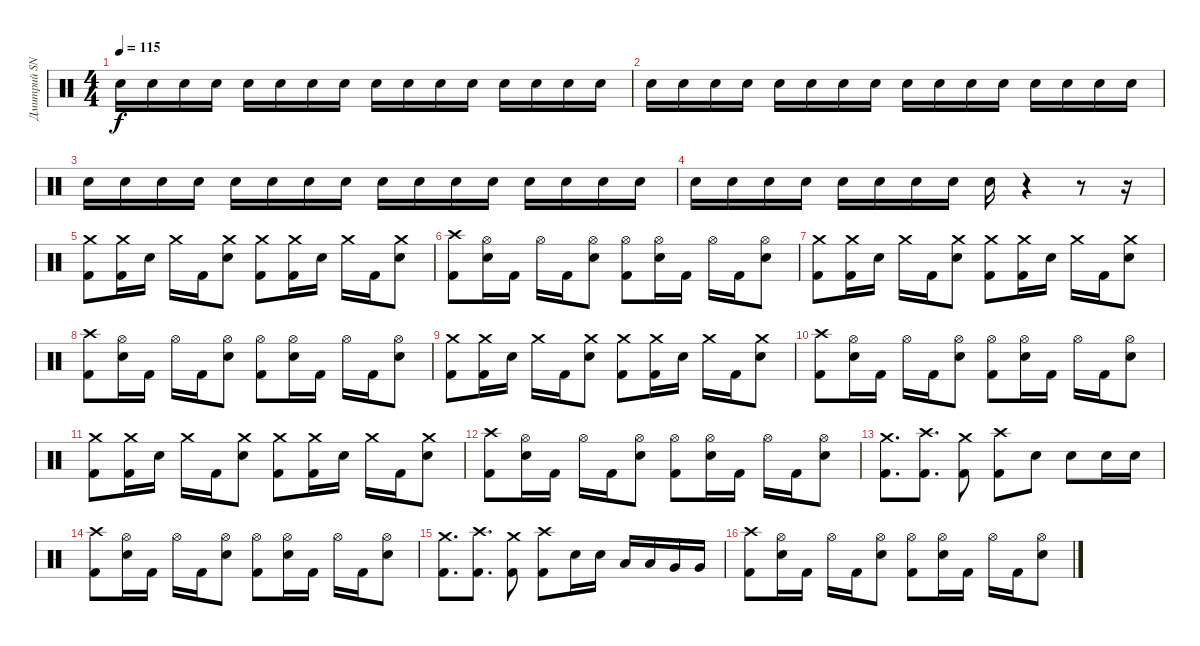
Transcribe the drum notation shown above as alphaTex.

\track ("Дмитрий SNAKE Хакимов" "Дмитрий SN") {instrument percussion}
\staff {score}
\articulation defaults
\ts (4 4)
\tempo 115
\clef neutral
\ks c "Snare (hit) 2".16{dy f volume 1} "Snare (hit) 2".16 "Snare (hit) 2".16{volume 2} "Snare (hit) 2".16 "Snare (hit) 2".16{volume 3} "Snare (hit) 2".16 "Snare (hit) 2".16{volume 4} "Snare (hit) 2".16 "Snare (hit) 2".16{volume 5} "Snare (hit) 2".16 "Snare (hit) 2".16{volume 6} "Snare (hit) 2".16 "Snare (hit) 2".16{volume 7} "Snare (hit) 2".16 "Snare (hit) 2".16{volume 8} "Snare (hit) 2".16
|
"Snare (hit) 2".16{volume 10} "Snare (hit) 2".16 "Snare (hit) 2".16{volume 11} "Snare (hit) 2".16 "Snare (hit) 2".16{volume 12} "Snare (hit) 2".16 "Snare (hit) 2".16{volume 13} "Snare (hit) 2".16 "Snare (hit) 2".16{volume 14} "Snare (hit) 2".16 "Snare (hit) 2".16{volume 15} "Snare (hit) 2".16 "Snare (hit) 2".16{volume 16} "Snare (hit) 2".16 "Snare (hit) 2".16 "Snare (hit) 2".16 |
"Snare (hit) 2".16 "Snare (hit) 2".16 "Snare (hit) 2".16 "Snare (hit) 2".16 "Snare (hit) 2".16 "Snare (hit) 2".16 "Snare (hit) 2".16 "Snare (hit) 2".16 "Snare (hit) 2".16 "Snare (hit) 2".16 "Snare (hit) 2".16 "Snare (hit) 2".16 "Snare (hit) 2".16 "Snare (hit) 2".16 "Snare (hit) 2".16 "Snare (hit) 2".16 |
"Snare (hit) 2".16 "Snare (hit) 2".16 "Snare (hit) 2".16 "Snare (hit) 2".16 "Snare (hit) 2".16 "Snare (hit) 2".16 "Snare (hit) 2".16 "Snare (hit) 2".16 "Electric Snare (hit)".16 r.4 r.8 r.16 |
("Crash medium (hit)" "Kick (hit) 2").8 ("Crash medium (hit)" "Kick (hit) 2").16 "Snare (hit) 2".16 "Crash medium (hit)".16 "Kick (hit) 2".16 ("Crash medium (hit)" "Snare (hit) 2").8 ("Crash medium (hit)" "Kick (hit) 2").8 ("Crash medium (hit)" "Kick (hit) 2").16 "Snare (hit) 2".16 "Crash medium (hit)".16 "Kick (hit) 2".16 ("Crash medium (hit)" "Snare (hit) 2").8 |
("Crash high (hit)" "Kick (hit) 2").8 ("Hi-Hat (open)" "Snare (hit) 2").16 "Kick (hit) 2".16 "Hi-Hat (open)".16 "Kick (hit) 2".16 ("Hi-Hat (open)" "Snare (hit) 2").8 ("Hi-Hat (open)" "Kick (hit) 2").8 ("Hi-Hat (open)" "Snare (hit) 2").16 "Kick (hit) 2".16 "Hi-Hat (open)".16 "Kick (hit) 2".16 ("Hi-Hat (open)" "Snare (hit) 2").8 |
("Crash medium (hit)" "Kick (hit) 2").8 ("Crash medium (hit)" "Kick (hit) 2").16 "Snare (hit) 2".16 "Crash medium (hit)".16 "Kick (hit) 2".16 ("Crash medium (hit)" "Snare (hit) 2").8 ("Crash medium (hit)" "Kick (hit) 2").8 ("Crash medium (hit)" "Kick (hit) 2").16 "Snare (hit) 2".16 "Crash medium (hit)".16 "Kick (hit) 2".16 ("Crash medium (hit)" "Snare (hit) 2").8 |
("Crash high (hit)" "Kick (hit) 2").8 ("Hi-Hat (open)" "Snare (hit) 2").16 "Kick (hit) 2".16 "Hi-Hat (open)".16 "Kick (hit) 2".16 ("Hi-Hat (open)" "Snare (hit) 2").8 ("Hi-Hat (open)" "Kick (hit) 2").8 ("Hi-Hat (open)" "Snare (hit) 2").16 "Kick (hit) 2".16 "Hi-Hat (open)".16 "Kick (hit) 2".16 ("Hi-Hat (open)" "Snare (hit) 2").8 |
("Crash medium (hit)" "Kick (hit) 2").8 ("Crash medium (hit)" "Kick (hit) 2").16 "Snare (hit) 2".16 "Crash medium (hit)".16 "Kick (hit) 2".16 ("Crash medium (hit)" "Snare (hit) 2").8 ("Crash medium (hit)" "Kick (hit) 2").8 ("Crash medium (hit)" "Kick (hit) 2").16 "Snare (hit) 2".16 "Crash medium (hit)".16 "Kick (hit) 2".16 ("Crash medium (hit)" "Snare (hit) 2").8 |
("Crash high (hit)" "Kick (hit) 2").8 ("Hi-Hat (open)" "Snare (hit) 2").16 "Kick (hit) 2".16 "Hi-Hat (open)".16 "Kick (hit) 2".16 ("Hi-Hat (open)" "Snare (hit) 2").8 ("Hi-Hat (open)" "Kick (hit) 2").8 ("Hi-Hat (open)" "Snare (hit) 2").16 "Kick (hit) 2".16 "Hi-Hat (open)".16 "Kick (hit) 2".16 ("Hi-Hat (open)" "Snare (hit) 2").8 |
("Crash medium (hit)" "Kick (hit) 2").8 ("Crash medium (hit)" "Kick (hit) 2").16 "Snare (hit) 2".16 "Crash medium (hit)".16 "Kick (hit) 2".16 ("Crash medium (hit)" "Snare (hit) 2").8 ("Crash medium (hit)" "Kick (hit) 2").8 ("Crash medium (hit)" "Kick (hit) 2").16 "Snare (hit) 2".16 "Crash medium (hit)".16 "Kick (hit) 2".16 ("Crash medium (hit)" "Snare (hit) 2").8 |
("Crash high (hit)" "Kick (hit) 2").8 ("Hi-Hat (open)" "Snare (hit) 2").16 "Kick (hit) 2".16 "Hi-Hat (open)".16 "Kick (hit) 2".16 ("Hi-Hat (open)" "Snare (hit) 2").8 ("Hi-Hat (open)" "Kick (hit) 2").8 ("Hi-Hat (open)" "Snare (hit) 2").16 "Kick (hit) 2".16 "Hi-Hat (open)".16 "Kick (hit) 2".16 ("Hi-Hat (open)" "Snare (hit) 2").8 |
("Crash medium (hit)" "Kick (hit) 2").8{d} ("Crash high (hit)" "Kick (hit) 2").8{d} ("Crash medium (hit)" "Kick (hit) 2").8 ("Crash high (hit)" "Kick (hit) 2").8 "Snare (hit) 2".8 "Snare (hit) 2".8 "Snare (hit) 2".16 "Snare (hit) 2".16 |
("Crash high (hit)" "Kick (hit) 2").8 ("Hi-Hat (open)" "Snare (hit) 2").16 "Kick (hit) 2".16 "Hi-Hat (open)".16 "Kick (hit) 2".16 ("Hi-Hat (open)" "Snare (hit) 2").8 ("Hi-Hat (open)" "Kick (hit) 2").8 ("Hi-Hat (open)" "Snare (hit) 2").16 "Kick (hit) 2".16 "Hi-Hat (open)".16 "Kick (hit) 2".16 ("Hi-Hat (open)" "Snare (hit) 2").8 |
("Crash medium (hit)" "Kick (hit) 2").8{d} ("Crash high (hit)" "Kick (hit) 2").8{d} ("Crash medium (hit)" "Kick (hit) 2").8 ("Crash high (hit)" "Kick (hit) 2").8 "Snare (hit) 2".16 "Snare (hit) 2".16 "Low Tom (hit)".16 "Low Tom (hit)".16 "Very Low Tom (hit)".16 "Very Low Tom (hit)".16 |
("Crash high (hit)" "Kick (hit) 2").8 ("Hi-Hat (open)" "Snare (hit) 2").16 "Kick (hit) 2".16 "Hi-Hat (open)".16 "Kick (hit) 2".16 ("Hi-Hat (open)" "Snare (hit) 2").8 ("Hi-Hat (open)" "Kick (hit) 2").8 ("Hi-Hat (open)" "Snare (hit) 2").16 "Kick (hit) 2".16 "Hi-Hat (open)".16 "Kick (hit) 2".16 ("Hi-Hat (open)" "Snare (hit) 2").8
